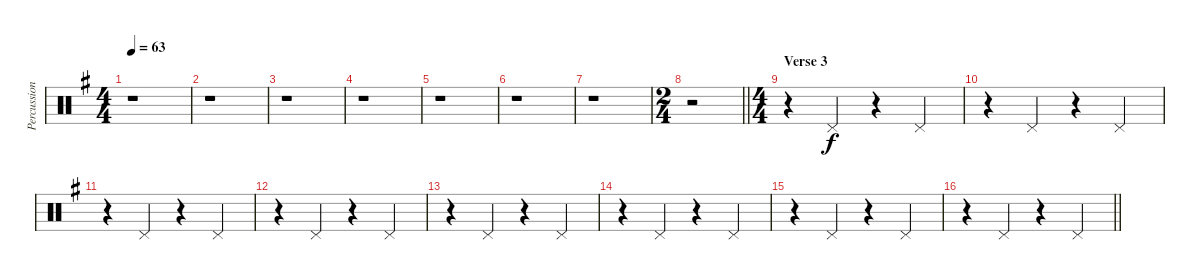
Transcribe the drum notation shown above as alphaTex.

\track ("Percussion" "Percussion") {instrument percussion}
\staff {score}
\articulation defaults
\ts (4 4)
\tempo 63
\clef neutral
\ks g
r.1{dy f} |
r.1 |
r.1 |
r.1 |
r.1 |
r.1 |
r.1 |
\ts (2 4)
\barLineRight lightlight
r.2 |
\ts (4 4)
\section ("" "Verse 3")
r.4 "Pedal Hi-Hat (hit)".4 r.4 "Pedal Hi-Hat (hit)".4 |
r.4 "Pedal Hi-Hat (hit)".4 r.4 "Pedal Hi-Hat (hit)".4 |
r.4 "Pedal Hi-Hat (hit)".4 r.4 "Pedal Hi-Hat (hit)".4 |
r.4 "Pedal Hi-Hat (hit)".4 r.4 "Pedal Hi-Hat (hit)".4 |
r.4 "Pedal Hi-Hat (hit)".4 r.4 "Pedal Hi-Hat (hit)".4 |
r.4 "Pedal Hi-Hat (hit)".4 r.4 "Pedal Hi-Hat (hit)".4 |
r.4 "Pedal Hi-Hat (hit)".4 r.4 "Pedal Hi-Hat (hit)".4 |
\barLineRight lightlight
r.4 "Pedal Hi-Hat (hit)".4 r.4 "Pedal Hi-Hat (hit)".4
